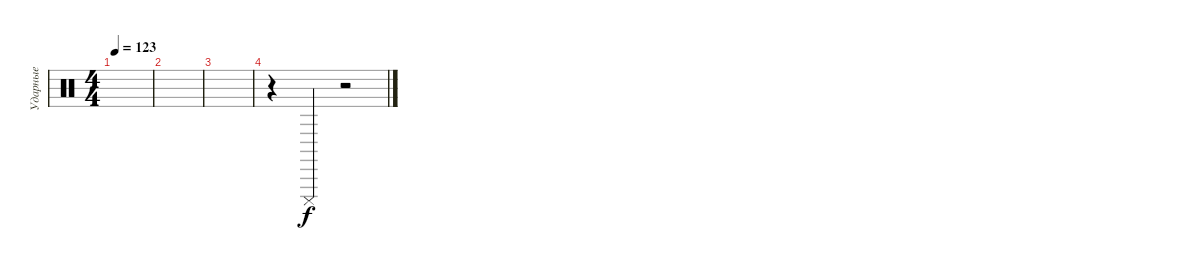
\track ("Ударные" "Ударные") {instrument percussion}
\staff {score}
\articulation defaults
\ts (4 4)
\tempo 123
\clef neutral
\ks c
|
|
|
r.4 "Cuica (mute)".4 r.2
